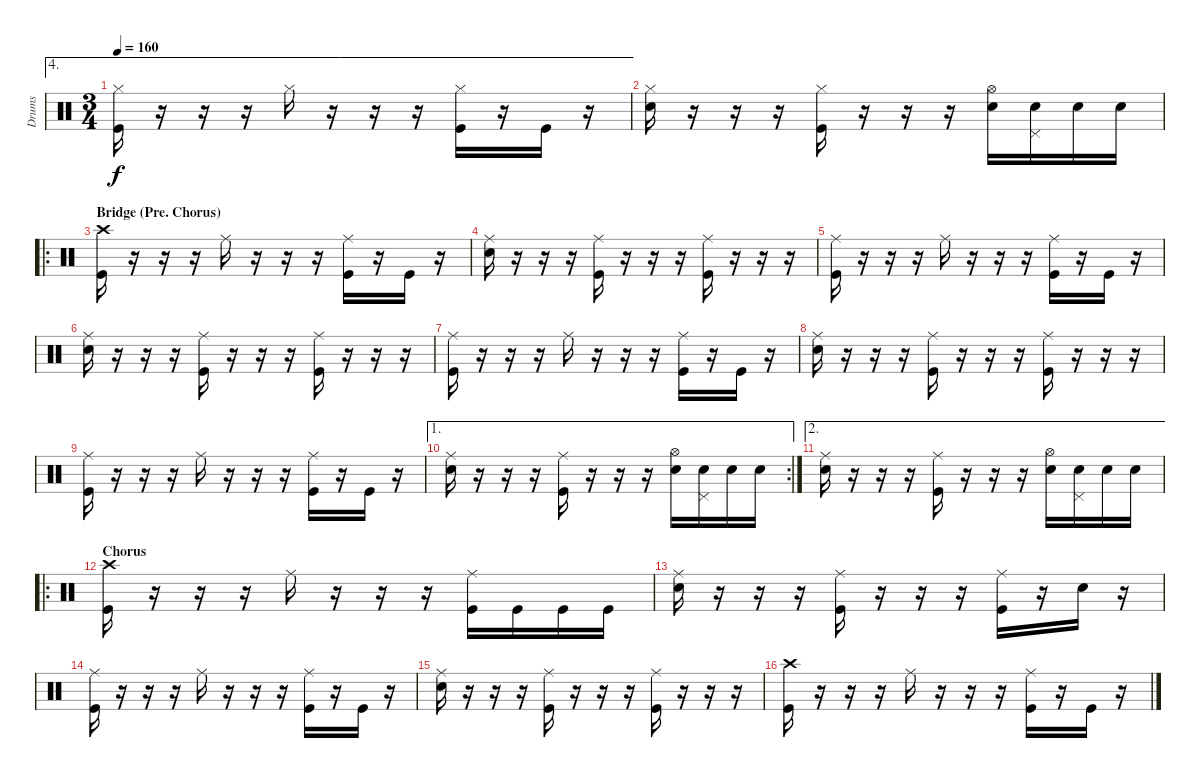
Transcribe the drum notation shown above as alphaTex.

\track ("Drums" "Drums") {instrument percussion}
\staff {score}
\articulation defaults
\ae 4
\ts (3 4)
\tempo 160
\clef neutral
\ks c
("Hi-Hat (closed)" "Kick (hit)").16{dy f} r.16 r.16 r.16 "Hi-Hat (closed)".16 r.16 r.16 r.16 ("Hi-Hat (closed)" "Kick (hit)").16 r.16 "Kick (hit)".16 r.16 |
("Hi-Hat (closed)" "Snare (hit) 2").16 r.16 r.16 r.16 ("Hi-Hat (closed)" "Kick (hit)").16 r.16 r.16 r.16 ("Hi-Hat (open)" "Snare (hit) 2").16 ("Pedal Hi-Hat (hit)" "Snare (hit) 2").16 "Snare (hit) 2".16 "Snare (hit) 2".16 |
\ro
\section ("" "Bridge (Pre. Chorus)")
("Crash high (hit)" "Kick (hit)").16 r.16 r.16 r.16 "Ride (middle)".16 r.16 r.16 r.16 ("Ride (middle)" "Kick (hit)").16 r.16 "Kick (hit)".16 r.16 |
("Ride (middle)" "Snare (hit) 2").16 r.16 r.16 r.16 ("Ride (middle)" "Kick (hit)").16 r.16 r.16 r.16 ("Ride (middle)" "Kick (hit)").16 r.16 r.16 r.16 |
("Ride (middle)" "Kick (hit)").16 r.16 r.16 r.16 "Ride (middle)".16 r.16 r.16 r.16 ("Ride (middle)" "Kick (hit)").16 r.16 "Kick (hit)".16 r.16 |
("Ride (middle)" "Snare (hit) 2").16 r.16 r.16 r.16 ("Ride (middle)" "Kick (hit)").16 r.16 r.16 r.16 ("Ride (middle)" "Kick (hit)").16 r.16 r.16 r.16 |
("Ride (middle)" "Kick (hit)").16 r.16 r.16 r.16 "Ride (middle)".16 r.16 r.16 r.16 ("Ride (middle)" "Kick (hit)").16 r.16 "Kick (hit)".16 r.16 |
("Ride (middle)" "Snare (hit) 2").16 r.16 r.16 r.16 ("Ride (middle)" "Kick (hit)").16 r.16 r.16 r.16 ("Ride (middle)" "Kick (hit)").16 r.16 r.16 r.16 |
("Ride (middle)" "Kick (hit)").16 r.16 r.16 r.16 "Ride (middle)".16 r.16 r.16 r.16 ("Ride (middle)" "Kick (hit)").16 r.16 "Kick (hit)".16 r.16 |
\ae 1
\rc 2
("Ride (middle)" "Snare (hit) 2").16 r.16 r.16 r.16 ("Ride (middle)" "Kick (hit)").16 r.16 r.16 r.16 ("Hi-Hat (open)" "Snare (hit) 2").16 ("Pedal Hi-Hat (hit)" "Snare (hit) 2").16 "Snare (hit) 2".16 "Snare (hit) 2".16 |
\ae 2
("Ride (middle)" "Snare (hit) 2").16 r.16 r.16 r.16 ("Ride (middle)" "Kick (hit)").16 r.16 r.16 r.16 ("Hi-Hat (open)" "Snare (hit) 2").16 ("Pedal Hi-Hat (hit)" "Snare (hit) 2").16 "Snare (hit) 2".16 "Snare (hit) 2".16 |
\ro
\section ("" "Chorus")
("Crash high (hit)" "Kick (hit)").16 r.16 r.16 r.16 "Ride (middle)".16 r.16 r.16 r.16 ("Ride (middle)" "Kick (hit)").16 "Kick (hit)".16 "Kick (hit)".16 "Kick (hit)".16 |
("Ride (middle)" "Snare (hit) 2").16 r.16 r.16 r.16 ("Ride (middle)" "Kick (hit)").16 r.16 r.16 r.16 ("Ride (middle)" "Kick (hit)").16 r.16 "Snare (hit) 2".16 r.16 |
("Ride (middle)" "Kick (hit)").16 r.16 r.16 r.16 "Ride (middle)".16 r.16 r.16 r.16 ("Ride (middle)" "Kick (hit)").16 r.16 "Kick (hit)".16 r.16 |
("Ride (middle)" "Snare (hit) 2").16 r.16 r.16 r.16 ("Ride (middle)" "Kick (hit)").16 r.16 r.16 r.16 ("Ride (middle)" "Kick (hit)").16 r.16 r.16 r.16 |
("Crash high (hit)" "Kick (hit)").16 r.16 r.16 r.16 "Ride (middle)".16 r.16 r.16 r.16 ("Ride (middle)" "Kick (hit)").16 r.16 "Kick (hit)".16 r.16
